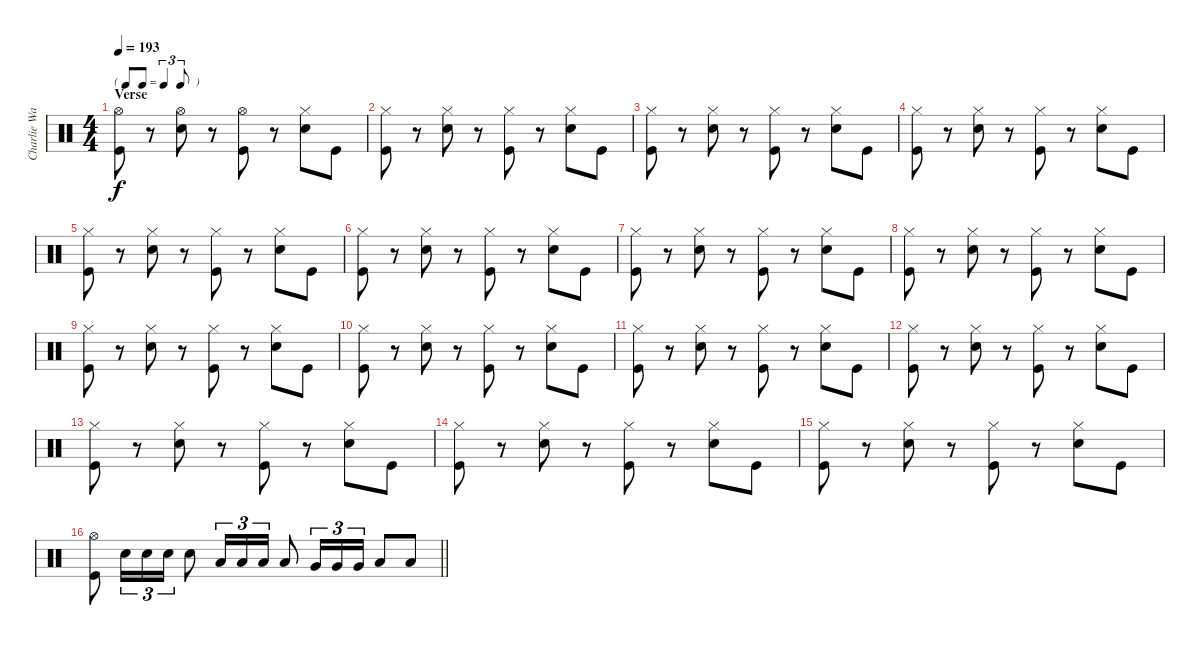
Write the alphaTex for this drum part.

\track ("Charlie Watts" "Charlie Wa") {instrument percussion}
\staff {score}
\articulation defaults
\ts (4 4)
\tf triplet8th
\section ("" "Verse")
\tempo 193
\clef neutral
\ks c
("Hi-Hat (open)" "Kick (hit)").8{dy f} r.8 ("Hi-Hat (open)" "Snare (hit) 2").8 r.8 ("Hi-Hat (open)" "Kick (hit)").8 r.8 ("Hi-Hat (closed)" "Snare (hit) 2").8 "Kick (hit)".8 |
("Hi-Hat (closed)" "Kick (hit)").8 r.8 ("Hi-Hat (closed)" "Snare (hit) 2").8 r.8 ("Hi-Hat (closed)" "Kick (hit)").8 r.8 ("Hi-Hat (closed)" "Snare (hit) 2").8 "Kick (hit)".8 |
("Hi-Hat (closed)" "Kick (hit)").8 r.8 ("Hi-Hat (closed)" "Snare (hit) 2").8 r.8 ("Hi-Hat (closed)" "Kick (hit)").8 r.8 ("Hi-Hat (closed)" "Snare (hit) 2").8 "Kick (hit)".8 |
("Hi-Hat (closed)" "Kick (hit)").8 r.8 ("Hi-Hat (closed)" "Snare (hit) 2").8 r.8 ("Hi-Hat (closed)" "Kick (hit)").8 r.8 ("Hi-Hat (closed)" "Snare (hit) 2").8 "Kick (hit)".8 |
("Hi-Hat (closed)" "Kick (hit)").8 r.8 ("Hi-Hat (closed)" "Snare (hit) 2").8 r.8 ("Hi-Hat (closed)" "Kick (hit)").8 r.8 ("Hi-Hat (closed)" "Snare (hit) 2").8 "Kick (hit)".8 |
("Hi-Hat (closed)" "Kick (hit)").8 r.8 ("Hi-Hat (closed)" "Snare (hit) 2").8 r.8 ("Hi-Hat (closed)" "Kick (hit)").8 r.8 ("Hi-Hat (closed)" "Snare (hit) 2").8 "Kick (hit)".8 |
("Hi-Hat (closed)" "Kick (hit)").8 r.8 ("Hi-Hat (closed)" "Snare (hit) 2").8 r.8 ("Hi-Hat (closed)" "Kick (hit)").8 r.8 ("Hi-Hat (closed)" "Snare (hit) 2").8 "Kick (hit)".8 |
("Hi-Hat (closed)" "Kick (hit)").8 r.8 ("Hi-Hat (closed)" "Snare (hit) 2").8 r.8 ("Hi-Hat (closed)" "Kick (hit)").8 r.8 ("Hi-Hat (closed)" "Snare (hit) 2").8 "Kick (hit)".8 |
("Hi-Hat (closed)" "Kick (hit)").8 r.8 ("Hi-Hat (closed)" "Snare (hit) 2").8 r.8 ("Hi-Hat (closed)" "Kick (hit)").8 r.8 ("Hi-Hat (closed)" "Snare (hit) 2").8 "Kick (hit)".8 |
("Hi-Hat (closed)" "Kick (hit)").8 r.8 ("Hi-Hat (closed)" "Snare (hit) 2").8 r.8 ("Hi-Hat (closed)" "Kick (hit)").8 r.8 ("Hi-Hat (closed)" "Snare (hit) 2").8 "Kick (hit)".8 |
("Hi-Hat (closed)" "Kick (hit)").8 r.8 ("Hi-Hat (closed)" "Snare (hit) 2").8 r.8 ("Hi-Hat (closed)" "Kick (hit)").8 r.8 ("Hi-Hat (closed)" "Snare (hit) 2").8 "Kick (hit)".8 |
("Hi-Hat (closed)" "Kick (hit)").8 r.8 ("Hi-Hat (closed)" "Snare (hit) 2").8 r.8 ("Hi-Hat (closed)" "Kick (hit)").8 r.8 ("Hi-Hat (closed)" "Snare (hit) 2").8 "Kick (hit)".8 |
("Hi-Hat (closed)" "Kick (hit)").8 r.8 ("Hi-Hat (closed)" "Snare (hit) 2").8 r.8 ("Hi-Hat (closed)" "Kick (hit)").8 r.8 ("Hi-Hat (closed)" "Snare (hit) 2").8 "Kick (hit)".8 |
("Hi-Hat (closed)" "Kick (hit)").8 r.8 ("Hi-Hat (closed)" "Snare (hit) 2").8 r.8 ("Hi-Hat (closed)" "Kick (hit)").8 r.8 ("Hi-Hat (closed)" "Snare (hit) 2").8 "Kick (hit)".8 |
("Hi-Hat (closed)" "Kick (hit)").8 r.8 ("Hi-Hat (closed)" "Snare (hit) 2").8 r.8 ("Hi-Hat (closed)" "Kick (hit)").8 r.8 ("Hi-Hat (closed)" "Snare (hit) 2").8 "Kick (hit)".8 |
\barLineRight lightlight
("Hi-Hat (open)" "Kick (hit)").8 "Snare (hit) 2".16{tu (3 2)} "Snare (hit) 2".16{tu (3 2)} "Snare (hit) 2".16{tu (3 2)} "Snare (hit) 2".8 "Low Tom (hit)".16{tu (3 2)} "Low Tom (hit)".16{tu (3 2)} "Low Tom (hit)".16{tu (3 2)} "Low Tom (hit)".8 "Very Low Tom (hit)".16{tu (3 2)} "Very Low Tom (hit)".16{tu (3 2)} "Very Low Tom (hit)".16{tu (3 2)} "Low Floor Tom (hit)".8 "Low Floor Tom (hit)".8
